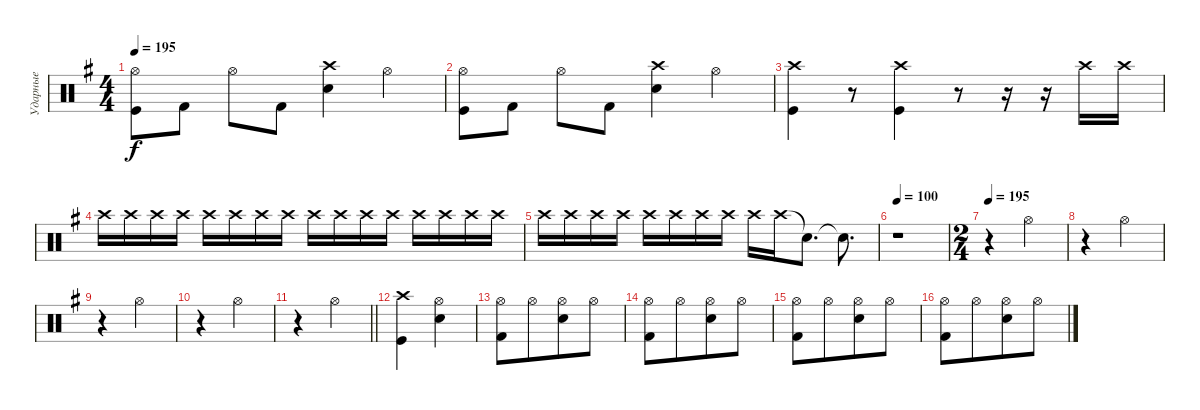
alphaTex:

\track ("Ударные" "Ударные") {instrument percussion}
\staff {score}
\articulation defaults
\ts (4 4)
\tempo 195
\clef neutral
\ks eminor
("Kick (hit)" "Hi-Hat (open)").8{dy f} "Kick (hit) 2".8 "Hi-Hat (open)".8 "Kick (hit) 2".8 ("Snare (hit) 2" "Crash high (hit)").4 "Hi-Hat (open)".4 |
("Kick (hit)" "Hi-Hat (open)").8 "Kick (hit) 2".8 "Hi-Hat (open)".8 "Kick (hit) 2".8 ("Snare (hit) 2" "Crash high (hit)").4 "Hi-Hat (open)".4 |
("Kick (hit)" "Crash high (hit)").4 r.8 ("Kick (hit)" "Crash high (hit)").4 r.8 r.16 r.16 "Crash high (hit)".16 "Crash high (hit)".16 |
"Crash high (hit)".16 "Crash high (hit)".16 "Crash high (hit)".16 "Crash high (hit)".16 "Crash high (hit)".16 "Crash high (hit)".16 "Crash high (hit)".16 "Crash high (hit)".16 "Crash high (hit)".16 "Crash high (hit)".16 "Crash high (hit)".16 "Crash high (hit)".16 "Crash high (hit)".16 "Crash high (hit)".16 "Crash high (hit)".16 "Crash high (hit)".16 |
"Crash high (hit)".16 "Crash high (hit)".16 "Crash high (hit)".16 "Crash high (hit)".16 "Crash high (hit)".16 "Crash high (hit)".16 "Crash high (hit)".16 "Crash high (hit)".16 "Crash high (hit)".16 "Crash high (hit)".16 "Snare (hit)"{t}.8{d} "Snare (hit)"{t}.8{d} |
\tempo 100
r.1 |
\ts (2 4)
\tempo 195
r.4 "Hi-Hat (open)".4 |
r.4 "Hi-Hat (open)".4 |
r.4 "Hi-Hat (open)".4 |
r.4 "Hi-Hat (open)".4 |
\barLineRight lightlight
r.4 "Hi-Hat (open)".4 |
\section ("" "")
("Kick (hit)" "Crash high (hit)").4 ("Snare (hit) 2" "Hi-Hat (open)").4 |
("Kick (hit) 2" "Hi-Hat (open)").8 "Hi-Hat (open)".8{beam merge} ("Snare (hit) 2" "Hi-Hat (open)").8 "Hi-Hat (open)".8 |
("Kick (hit) 2" "Hi-Hat (open)").8 "Hi-Hat (open)".8{beam merge} ("Snare (hit) 2" "Hi-Hat (open)").8 "Hi-Hat (open)".8 |
("Kick (hit) 2" "Hi-Hat (open)").8 "Hi-Hat (open)".8{beam merge} ("Snare (hit) 2" "Hi-Hat (open)").8 "Hi-Hat (open)".8 |
("Kick (hit) 2" "Hi-Hat (open)").8 "Hi-Hat (open)".8{beam merge} ("Snare (hit) 2" "Hi-Hat (open)").8 "Hi-Hat (open)".8
